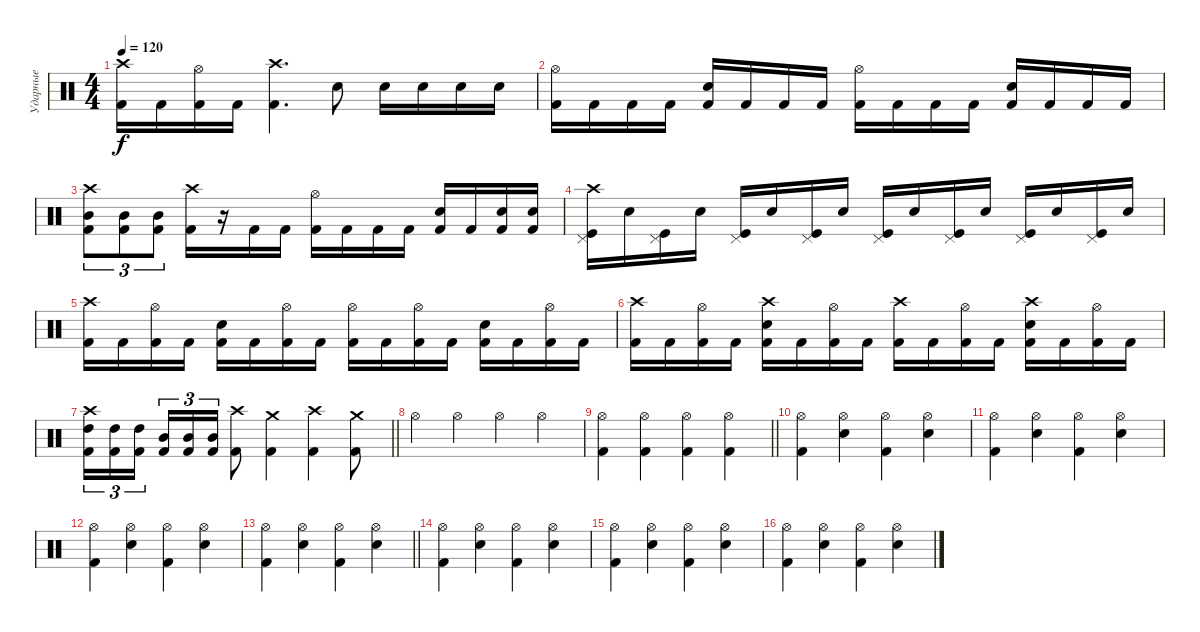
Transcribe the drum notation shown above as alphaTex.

\track ("Ударные" "Ударные") {instrument percussion}
\staff {score}
\articulation defaults
\ts (4 4)
\tempo 120
\clef neutral
\ks c
("Crash high (hit)" "Kick (hit) 2").16{dy f} "Kick (hit) 2".16 ("Hi-Hat (open)" "Kick (hit) 2").16 "Kick (hit) 2".16 ("Crash high (hit)" "Kick (hit) 2").4{d} "Electric Snare (hit)".8 "Electric Snare (hit)".16 "Electric Snare (hit)".16 "Electric Snare (hit)".16 "Electric Snare (hit)".16 |
("Hi-Hat (open)" "Kick (hit) 2").16 "Kick (hit) 2".16 "Kick (hit) 2".16 "Kick (hit) 2".16 ("Electric Snare (hit)" "Kick (hit) 2").16 "Kick (hit) 2".16 "Kick (hit) 2".16 "Kick (hit) 2".16 ("Hi-Hat (open)" "Kick (hit) 2").16 "Kick (hit) 2".16 "Kick (hit) 2".16 "Kick (hit) 2".16 ("Electric Snare (hit)" "Kick (hit) 2").16 "Kick (hit) 2".16 "Kick (hit) 2".16 "Kick (hit) 2".16 |
("Crash high (hit)" "Mid Tom (hit)" "Kick (hit) 2").8{tu (3 2)} ("Mid Tom (hit)" "Kick (hit) 2").8{tu (3 2)} ("Mid Tom (hit)" "Kick (hit) 2").8{tu (3 2)} ("Crash high (hit)" "Kick (hit) 2").16 r.16 "Kick (hit) 2".16 "Kick (hit) 2".16 ("Hi-Hat (open)" "Kick (hit) 2").16 "Kick (hit) 2".16 "Kick (hit) 2".16 "Kick (hit) 2".16 ("Electric Snare (hit)" "Kick (hit) 2").16 "Kick (hit) 2".16 ("Electric Snare (hit)" "Kick (hit) 2").16 ("Electric Snare (hit)" "Kick (hit) 2").16 |
("Crash high (hit)" "Kick (hit)" "Pedal Hi-Hat (hit)").16 "Electric Snare (hit)".16 ("Kick (hit)" "Pedal Hi-Hat (hit)").16 "Electric Snare (hit)".16 ("Kick (hit)" "Pedal Hi-Hat (hit)").16 "Electric Snare (hit)".16 ("Kick (hit)" "Pedal Hi-Hat (hit)").16 "Electric Snare (hit)".16 ("Kick (hit)" "Pedal Hi-Hat (hit)").16 "Electric Snare (hit)".16 ("Kick (hit)" "Pedal Hi-Hat (hit)").16 "Electric Snare (hit)".16 ("Kick (hit)" "Pedal Hi-Hat (hit)").16 "Electric Snare (hit)".16 ("Kick (hit)" "Pedal Hi-Hat (hit)").16 "Electric Snare (hit)".16 |
("Crash high (hit)" "Kick (hit) 2").16 "Kick (hit) 2".16 ("Hi-Hat (open)" "Kick (hit) 2").16 "Kick (hit) 2".16 ("Electric Snare (hit)" "Kick (hit) 2").16 "Kick (hit) 2".16 ("Hi-Hat (open)" "Kick (hit) 2").16 "Kick (hit) 2".16 ("Hi-Hat (open)" "Kick (hit) 2").16 "Kick (hit) 2".16 ("Hi-Hat (open)" "Kick (hit) 2").16 "Kick (hit) 2".16 ("Electric Snare (hit)" "Kick (hit) 2").16 "Kick (hit) 2".16 ("Hi-Hat (open)" "Kick (hit) 2").16 "Kick (hit) 2".16 |
("Crash high (hit)" "Kick (hit) 2").16 "Kick (hit) 2".16 ("Hi-Hat (open)" "Kick (hit) 2").16 "Kick (hit) 2".16 ("Crash high (hit)" "Electric Snare (hit)" "Kick (hit) 2").16 "Kick (hit) 2".16 ("Hi-Hat (open)" "Kick (hit) 2").16 "Kick (hit) 2".16 ("Crash high (hit)" "Kick (hit) 2").16 "Kick (hit) 2".16 ("Hi-Hat (open)" "Kick (hit) 2").16 "Kick (hit) 2".16 ("Crash high (hit)" "Electric Snare (hit)" "Kick (hit) 2").16 "Kick (hit) 2".16 ("Hi-Hat (open)" "Kick (hit) 2").16 "Kick (hit) 2".16 |
\barLineRight lightlight
("Crash high (hit)" "High Tom (hit)" "Kick (hit) 2").16{tu (3 2)} ("High Tom (hit)" "Kick (hit) 2").16{tu (3 2)} ("High Tom (hit)" "Kick (hit) 2").16{tu (3 2) beam splitsecondary} ("Mid Tom (hit)" "Kick (hit) 2").16{tu (3 2)} ("Mid Tom (hit)" "Kick (hit) 2").16{tu (3 2)} ("Mid Tom (hit)" "Kick (hit) 2").16{tu (3 2)} ("Crash high (hit)" "Kick (hit) 2").8 ("Crash medium (hit)" "Kick (hit) 2").4 ("Crash high (hit)" "Kick (hit) 2").4 ("Crash medium (hit)" "Kick (hit) 2").8 |
"Hi-Hat (open)".4 "Hi-Hat (open)".4 "Hi-Hat (open)".4 "Hi-Hat (open)".4 |
\barLineRight lightlight
("Hi-Hat (open)" "Kick (hit) 2").4 ("Hi-Hat (open)" "Kick (hit) 2").4 ("Hi-Hat (open)" "Kick (hit) 2").4 ("Hi-Hat (open)" "Kick (hit) 2").4 |
("Hi-Hat (open)" "Kick (hit) 2").4 ("Hi-Hat (open)" "Electric Snare (hit)").4 ("Hi-Hat (open)" "Kick (hit) 2").4 ("Hi-Hat (open)" "Electric Snare (hit)").4 |
("Hi-Hat (open)" "Kick (hit) 2").4 ("Hi-Hat (open)" "Electric Snare (hit)").4 ("Hi-Hat (open)" "Kick (hit) 2").4 ("Hi-Hat (open)" "Electric Snare (hit)").4 |
("Hi-Hat (open)" "Kick (hit) 2").4 ("Hi-Hat (open)" "Electric Snare (hit)").4 ("Hi-Hat (open)" "Kick (hit) 2").4 ("Hi-Hat (open)" "Electric Snare (hit)").4 |
\barLineRight lightlight
("Hi-Hat (open)" "Kick (hit) 2").4 ("Hi-Hat (open)" "Electric Snare (hit)").4 ("Hi-Hat (open)" "Kick (hit) 2").4 ("Hi-Hat (open)" "Electric Snare (hit)").4 |
("Hi-Hat (open)" "Kick (hit) 2").4 ("Hi-Hat (open)" "Electric Snare (hit)").4 ("Hi-Hat (open)" "Kick (hit) 2").4 ("Hi-Hat (open)" "Electric Snare (hit)").4 |
("Hi-Hat (open)" "Kick (hit) 2").4 ("Hi-Hat (open)" "Electric Snare (hit)").4 ("Hi-Hat (open)" "Kick (hit) 2").4 ("Hi-Hat (open)" "Electric Snare (hit)").4 |
("Hi-Hat (open)" "Kick (hit) 2").4 ("Hi-Hat (open)" "Electric Snare (hit)").4 ("Hi-Hat (open)" "Kick (hit) 2").4 ("Hi-Hat (open)" "Electric Snare (hit)").4
